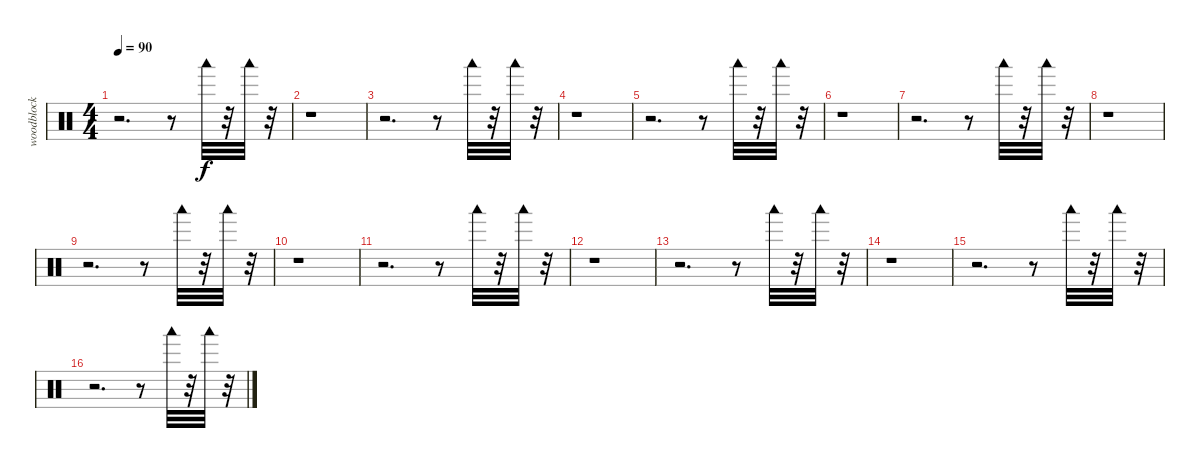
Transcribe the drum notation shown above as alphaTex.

\track ("woodblock" "woodblock") {instrument percussion}
\staff {score}
\articulation defaults
\ts (4 4)
\tempo 90
\clef neutral
\ks c
r.2{d dy f} r.8 "Woodblock low (hit)".32 r.32 "Woodblock low (hit)".32 r.32 |
r.1 |
r.2{d} r.8 "Woodblock low (hit)".32 r.32 "Woodblock low (hit)".32 r.32 |
r.1 |
r.2{d} r.8 "Woodblock low (hit)".32 r.32 "Woodblock low (hit)".32 r.32 |
r.1 |
r.2{d} r.8 "Woodblock low (hit)".32 r.32 "Woodblock low (hit)".32 r.32 |
r.1 |
r.2{d} r.8 "Woodblock low (hit)".32 r.32 "Woodblock low (hit)".32 r.32 |
r.1 |
r.2{d} r.8 "Woodblock low (hit)".32 r.32 "Woodblock low (hit)".32 r.32 |
r.1 |
r.2{d} r.8 "Woodblock low (hit)".32 r.32 "Woodblock low (hit)".32 r.32 |
r.1 |
r.2{d} r.8 "Woodblock low (hit)".32 r.32 "Woodblock low (hit)".32 r.32 |
r.2{d} r.8 "Woodblock low (hit)".32 r.32 "Woodblock low (hit)".32 r.32
